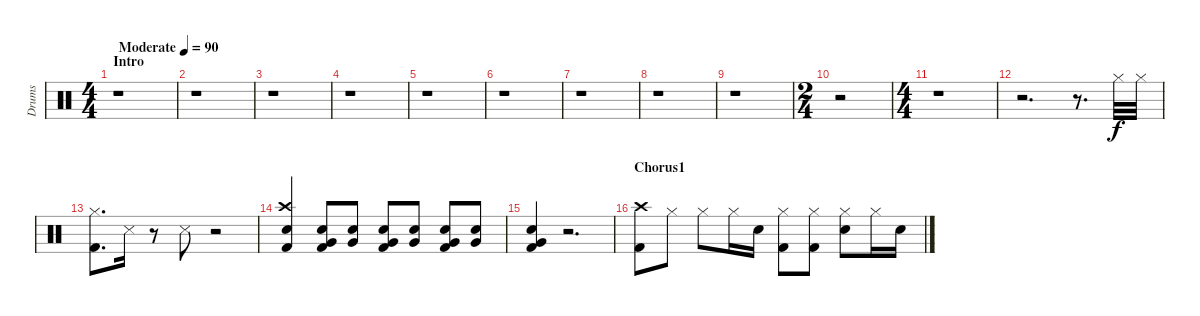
\track ("Drums" "Drums") {instrument percussion}
\staff {score}
\articulation defaults
\ts (4 4)
\section ("" "Intro")
\tempo (90 "Moderate")
\clef neutral
\ks c
r.1{dy f} |
r.1 |
r.1 |
r.1 |
r.1 |
r.1 |
r.1 |
r.1 |
r.1 |
\ts (2 4)
r.2 |
\ts (4 4)
r.1 |
r.2{d} r.8{d} "Hi-Hat (closed)".32 "Hi-Hat (closed)".32 |
("Hi-Hat (closed)" "Kick (hit) 2").8{d} "Snare (side stick) 3".16 r.8 "Snare (side stick) 3".8 r.2 |
("Crash high (hit)" "Snare (hit) 2" "Kick (hit) 2").4 ("Snare (hit) 2" "Very Low Tom (hit)" "Kick (hit) 2").8 ("Snare (hit) 2" "Very Low Tom (hit)").8 ("Snare (hit) 2" "Very Low Tom (hit)" "Kick (hit) 2").8 ("Snare (hit) 2" "Very Low Tom (hit)").8 ("Snare (hit) 2" "Very Low Tom (hit)" "Kick (hit) 2").8 ("Snare (hit) 2" "Very Low Tom (hit)").8 |
("Snare (hit) 2" "Very Low Tom (hit)" "Kick (hit) 2").4 r.2{d} |
\section ("" "Chorus1")
("Crash high (hit)" "Kick (hit) 2").8 "Hi-Hat (closed)".8 "Hi-Hat (closed)".8 "Hi-Hat (closed)".16 "Snare (hit) 2".16 ("Hi-Hat (closed)" "Kick (hit) 2").8 ("Hi-Hat (closed)" "Kick (hit) 2").8 ("Hi-Hat (closed)" "Snare (hit) 2").8 "Hi-Hat (closed)".16 "Snare (hit) 2".16
